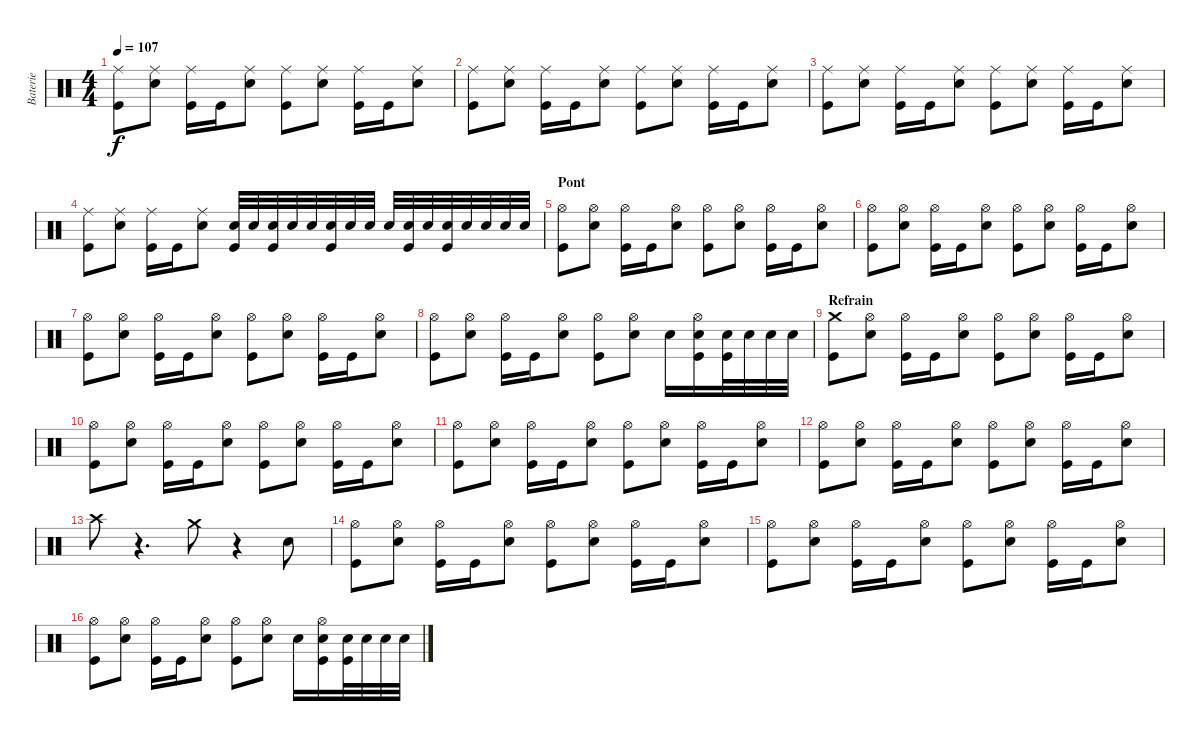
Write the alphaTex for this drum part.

\track ("Baterie" "Baterie") {instrument percussion}
\staff {score}
\articulation defaults
\ts (4 4)
\tempo 107
\clef neutral
\ks c
("Ride (middle)" "Kick (hit)").8{dy f} ("Ride (middle)" "Electric Snare (hit)").8 ("Ride (middle)" "Kick (hit)").16 "Kick (hit)".16 ("Ride (middle)" "Electric Snare (hit)").8 ("Ride (middle)" "Kick (hit)").8 ("Ride (middle)" "Electric Snare (hit)").8 ("Ride (middle)" "Kick (hit)").16 "Kick (hit)".16 ("Ride (middle)" "Electric Snare (hit)").8 |
("Ride (middle)" "Kick (hit)").8 ("Ride (middle)" "Electric Snare (hit)").8 ("Ride (middle)" "Kick (hit)").16 "Kick (hit)".16 ("Ride (middle)" "Electric Snare (hit)").8 ("Ride (middle)" "Kick (hit)").8 ("Ride (middle)" "Electric Snare (hit)").8 ("Ride (middle)" "Kick (hit)").16 "Kick (hit)".16 ("Ride (middle)" "Electric Snare (hit)").8 |
("Ride (middle)" "Kick (hit)").8 ("Ride (middle)" "Electric Snare (hit)").8 ("Ride (middle)" "Kick (hit)").16 "Kick (hit)".16 ("Ride (middle)" "Electric Snare (hit)").8 ("Ride (middle)" "Kick (hit)").8 ("Ride (middle)" "Electric Snare (hit)").8 ("Ride (middle)" "Kick (hit)").16 "Kick (hit)".16 ("Ride (middle)" "Electric Snare (hit)").8 |
("Ride (middle)" "Kick (hit)").8 ("Ride (middle)" "Electric Snare (hit)").8 ("Ride (middle)" "Kick (hit)").16 "Kick (hit)".16 ("Ride (middle)" "Electric Snare (hit)").8 ("Electric Snare (hit)" "Kick (hit)").32 "Electric Snare (hit)".32 ("Electric Snare (hit)" "Kick (hit)").32 "Electric Snare (hit)".32 "Electric Snare (hit)".32 ("Electric Snare (hit)" "Kick (hit)").32 "Electric Snare (hit)".32 "Electric Snare (hit)".32 "Electric Snare (hit)".32 ("Electric Snare (hit)" "Kick (hit)").32 "Electric Snare (hit)".32 ("Electric Snare (hit)" "Kick (hit)").32 "Electric Snare (hit)".32 "Electric Snare (hit)".32 "Electric Snare (hit)".32 "Electric Snare (hit)".32 |
\section ("" "Pont")
("Hi-Hat (open)" "Kick (hit)").8 ("Hi-Hat (open)" "Electric Snare (hit)").8 ("Hi-Hat (open)" "Kick (hit)").16 "Kick (hit)".16 ("Hi-Hat (open)" "Electric Snare (hit)").8 ("Hi-Hat (open)" "Kick (hit)").8 ("Hi-Hat (open)" "Electric Snare (hit)").8 ("Hi-Hat (open)" "Kick (hit)").16 "Kick (hit)".16 ("Hi-Hat (open)" "Electric Snare (hit)").8 |
("Hi-Hat (open)" "Kick (hit)").8 ("Hi-Hat (open)" "Electric Snare (hit)").8 ("Hi-Hat (open)" "Kick (hit)").16 "Kick (hit)".16 ("Hi-Hat (open)" "Electric Snare (hit)").8 ("Hi-Hat (open)" "Kick (hit)").8 ("Hi-Hat (open)" "Electric Snare (hit)").8 ("Hi-Hat (open)" "Kick (hit)").16 "Kick (hit)".16 ("Hi-Hat (open)" "Electric Snare (hit)").8 |
("Hi-Hat (open)" "Kick (hit)").8 ("Hi-Hat (open)" "Electric Snare (hit)").8 ("Hi-Hat (open)" "Kick (hit)").16 "Kick (hit)".16 ("Hi-Hat (open)" "Electric Snare (hit)").8 ("Hi-Hat (open)" "Kick (hit)").8 ("Hi-Hat (open)" "Electric Snare (hit)").8 ("Hi-Hat (open)" "Kick (hit)").16 "Kick (hit)".16 ("Hi-Hat (open)" "Electric Snare (hit)").8 |
("Hi-Hat (open)" "Kick (hit)").8 ("Hi-Hat (open)" "Electric Snare (hit)").8 ("Hi-Hat (open)" "Kick (hit)").16 "Kick (hit)".16 ("Hi-Hat (open)" "Electric Snare (hit)").8 ("Hi-Hat (open)" "Kick (hit)").8 ("Hi-Hat (open)" "Electric Snare (hit)").8 "Electric Snare (hit)".16 ("Hi-Hat (open)" "Electric Snare (hit)" "Kick (hit)").16 ("Electric Snare (hit)" "Kick (hit)").32 "Electric Snare (hit)".32 "Electric Snare (hit)".32 "Electric Snare (hit)".32 |
\section ("" "Refrain")
("Crash medium (hit)" "Kick (hit)").8 ("Hi-Hat (open)" "Electric Snare (hit)").8 ("Hi-Hat (open)" "Kick (hit)").16 "Kick (hit)".16 ("Hi-Hat (open)" "Electric Snare (hit)").8 ("Hi-Hat (open)" "Kick (hit)").8 ("Hi-Hat (open)" "Electric Snare (hit)").8 ("Hi-Hat (open)" "Kick (hit)").16 "Kick (hit)".16 ("Hi-Hat (open)" "Electric Snare (hit)").8 |
("Hi-Hat (open)" "Kick (hit)").8 ("Hi-Hat (open)" "Electric Snare (hit)").8 ("Hi-Hat (open)" "Kick (hit)").16 "Kick (hit)".16 ("Hi-Hat (open)" "Electric Snare (hit)").8 ("Hi-Hat (open)" "Kick (hit)").8 ("Hi-Hat (open)" "Electric Snare (hit)").8 ("Hi-Hat (open)" "Kick (hit)").16 "Kick (hit)".16 ("Hi-Hat (open)" "Electric Snare (hit)").8 |
("Hi-Hat (open)" "Kick (hit)").8 ("Hi-Hat (open)" "Electric Snare (hit)").8 ("Hi-Hat (open)" "Kick (hit)").16 "Kick (hit)".16 ("Hi-Hat (open)" "Electric Snare (hit)").8 ("Hi-Hat (open)" "Kick (hit)").8 ("Hi-Hat (open)" "Electric Snare (hit)").8 ("Hi-Hat (open)" "Kick (hit)").16 "Kick (hit)".16 ("Hi-Hat (open)" "Electric Snare (hit)").8 |
("Hi-Hat (open)" "Kick (hit)").8 ("Hi-Hat (open)" "Electric Snare (hit)").8 ("Hi-Hat (open)" "Kick (hit)").16 "Kick (hit)".16 ("Hi-Hat (open)" "Electric Snare (hit)").8 ("Hi-Hat (open)" "Kick (hit)").8 ("Hi-Hat (open)" "Electric Snare (hit)").8 ("Hi-Hat (open)" "Kick (hit)").16 "Kick (hit)".16 ("Hi-Hat (open)" "Electric Snare (hit)").8 |
"Crash high (hit)".8 r.4{d} "Crash medium (hit)".8 r.4 "Electric Snare (hit)".8 |
("Hi-Hat (open)" "Kick (hit)").8 ("Hi-Hat (open)" "Electric Snare (hit)").8 ("Hi-Hat (open)" "Kick (hit)").16 "Kick (hit)".16 ("Hi-Hat (open)" "Electric Snare (hit)").8 ("Hi-Hat (open)" "Kick (hit)").8 ("Hi-Hat (open)" "Electric Snare (hit)").8 ("Hi-Hat (open)" "Kick (hit)").16 "Kick (hit)".16 ("Hi-Hat (open)" "Electric Snare (hit)").8 |
("Hi-Hat (open)" "Kick (hit)").8 ("Hi-Hat (open)" "Electric Snare (hit)").8 ("Hi-Hat (open)" "Kick (hit)").16 "Kick (hit)".16 ("Hi-Hat (open)" "Electric Snare (hit)").8 ("Hi-Hat (open)" "Kick (hit)").8 ("Hi-Hat (open)" "Electric Snare (hit)").8 ("Hi-Hat (open)" "Kick (hit)").16 "Kick (hit)".16 ("Hi-Hat (open)" "Electric Snare (hit)").8 |
("Hi-Hat (open)" "Kick (hit)").8 ("Hi-Hat (open)" "Electric Snare (hit)").8 ("Hi-Hat (open)" "Kick (hit)").16 "Kick (hit)".16 ("Hi-Hat (open)" "Electric Snare (hit)").8 ("Hi-Hat (open)" "Kick (hit)").8 ("Hi-Hat (open)" "Electric Snare (hit)").8 "Electric Snare (hit)".16 ("Hi-Hat (open)" "Electric Snare (hit)" "Kick (hit)").16 ("Electric Snare (hit)" "Kick (hit)").32 "Electric Snare (hit)".32 "Electric Snare (hit)".32 "Electric Snare (hit)".32
